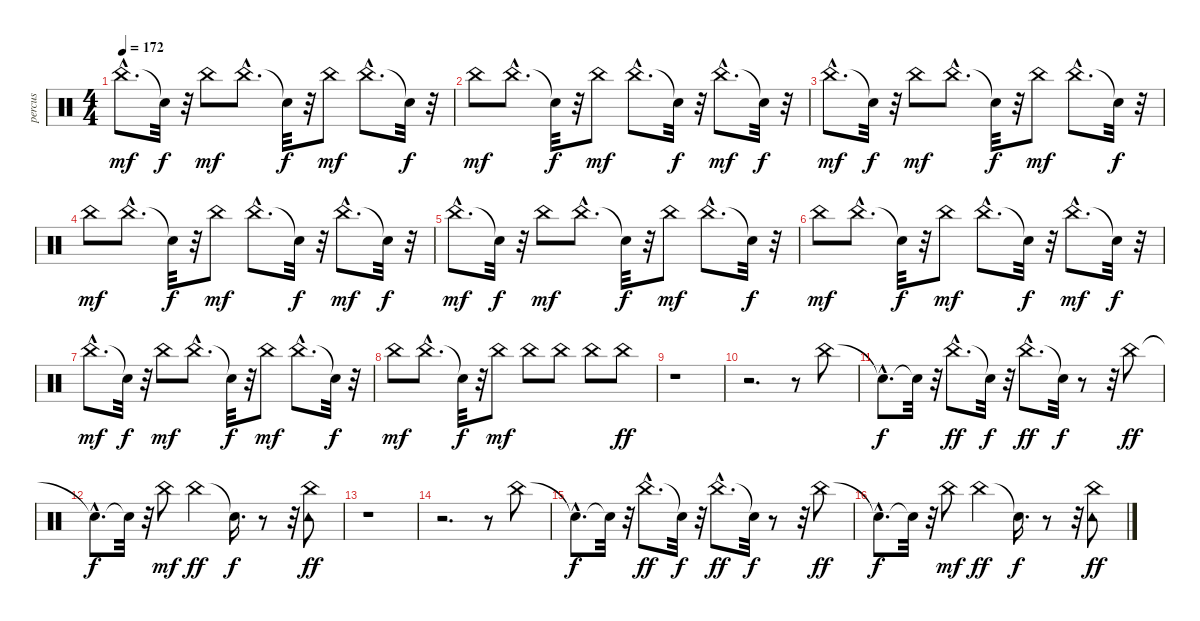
\track ("percus" "percus") {instrument percussion}
\staff {score}
\articulation defaults
\ts (4 4)
\tempo 172
\clef neutral
\ks c "China (hit)"{hac}.8{d dy mf} "Snare (hit)"{t}.32{dy f}
r.32 "China (hit)".8{dy mf} "China (hit)"{hac}.8{d} "Snare (hit)"{t}.32{dy f} r.32 "China (hit)".8{dy mf} "China (hit)"{hac}.8{d} "Snare (hit)"{t}.32{dy f} r.32 |
"China (hit)".8{dy mf} "China (hit)"{hac}.8{d} "Snare (hit)"{t}.32{dy f} r.32 "China (hit)".8{dy mf} "China (hit)"{hac}.8{d} "Snare (hit)"{t}.32{dy f} r.32 "China (hit)"{hac}.8{d dy mf} "Snare (hit)"{t}.32{dy f} r.32 |
"China (hit)"{hac}.8{d dy mf} "Snare (hit)"{t}.32{dy f} r.32 "China (hit)".8{dy mf} "China (hit)"{hac}.8{d} "Snare (hit)"{t}.32{dy f} r.32 "China (hit)".8{dy mf} "China (hit)"{hac}.8{d} "Snare (hit)"{t}.32{dy f} r.32 |
"China (hit)".8{dy mf} "China (hit)"{hac}.8{d} "Snare (hit)"{t}.32{dy f} r.32 "China (hit)".8{dy mf} "China (hit)"{hac}.8{d} "Snare (hit)"{t}.32{dy f} r.32 "China (hit)"{hac}.8{d dy mf} "Snare (hit)"{t}.32{dy f} r.32 |
"China (hit)"{hac}.8{d dy mf} "Snare (hit)"{t}.32{dy f} r.32 "China (hit)".8{dy mf} "China (hit)"{hac}.8{d} "Snare (hit)"{t}.32{dy f} r.32 "China (hit)".8{dy mf} "China (hit)"{hac}.8{d} "Snare (hit)"{t}.32{dy f} r.32 |
"China (hit)".8{dy mf} "China (hit)"{hac}.8{d} "Snare (hit)"{t}.32{dy f} r.32 "China (hit)".8{dy mf} "China (hit)"{hac}.8{d} "Snare (hit)"{t}.32{dy f} r.32 "China (hit)"{hac}.8{d dy mf} "Snare (hit)"{t}.32{dy f} r.32 |
"China (hit)"{hac}.8{d dy mf} "Snare (hit)"{t}.32{dy f} r.32 "China (hit)".8{dy mf} "China (hit)"{hac}.8{d} "Snare (hit)"{t}.32{dy f} r.32 "China (hit)".8{dy mf} "China (hit)"{hac}.8{d} "Snare (hit)"{t}.32{dy f} r.32 |
"China (hit)".8{dy mf} "China (hit)"{hac}.8{d} "Snare (hit)"{t}.32{dy f} r.32 "China (hit)".8{dy mf} "China (hit)".8 "China (hit)".8 "China (hit)".8 "China (hit)".8{dy ff} |
r.1 |
r.2{d} r.8 "China (hit)".8 |
"Snare (hit)"{hac t}.8{d dy f} "Snare (hit)"{t}.32 r.32 "China (hit)"{hac}.8{d dy ff} "Snare (hit)"{t}.32{dy f} r.32 "China (hit)"{hac}.8{d dy ff} "Snare (hit)"{t}.32{dy f} r.8 r.32 "China (hit)".8{dy ff} |
"Snare (hit)"{hac t}.8{d dy f} "Snare (hit)"{t}.32 r.32 "China (hit)".8{dy mf} "China (hit)".4{dy ff} "Snare (hit)"{t}.16{d dy f} r.8 r.32 ("China (hit)" "Tambourine (hit)").8{dy ff} |
r.1 |
r.2{d} r.8 "China (hit)".8 |
"Snare (hit)"{hac t}.8{d dy f} "Snare (hit)"{t}.32 r.32 "China (hit)"{hac}.8{d dy ff} "Snare (hit)"{t}.32{dy f} r.32 "China (hit)"{hac}.8{d dy ff} "Snare (hit)"{t}.32{dy f} r.8 r.32 "China (hit)".8{dy ff} |
"Snare (hit)"{hac t}.8{d dy f} "Snare (hit)"{t}.32 r.32 "China (hit)".8{dy mf} "China (hit)".4{dy ff} "Snare (hit)"{t}.16{d dy f} r.8 r.32 ("China (hit)" "Tambourine (hit)").8{dy ff}
